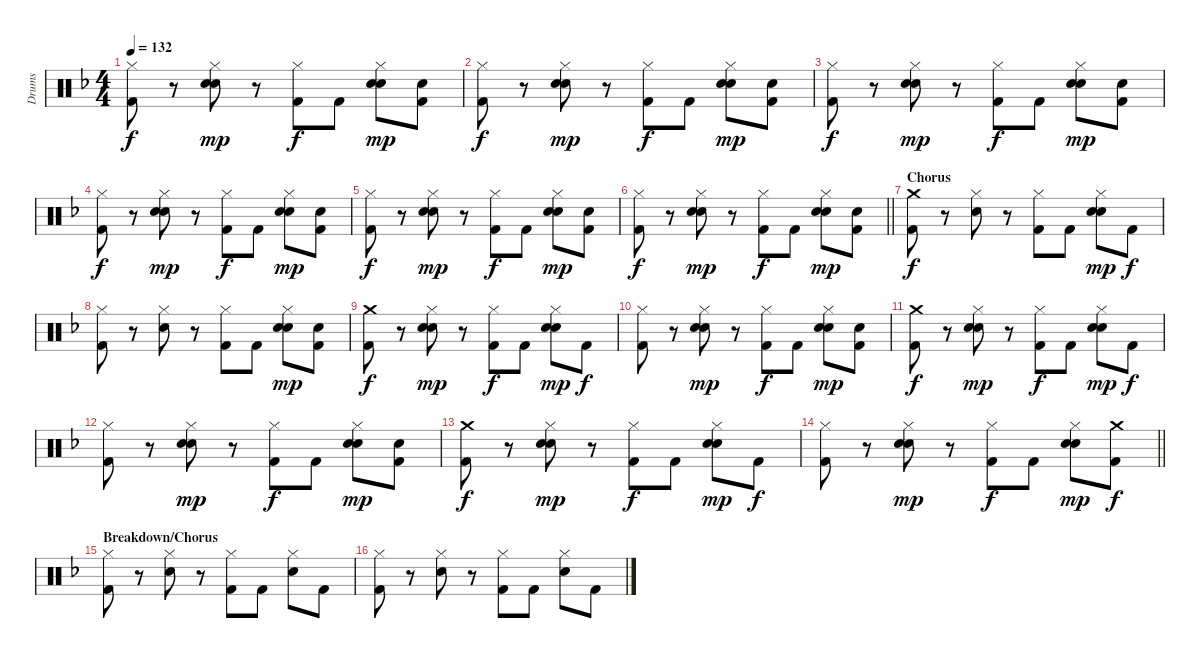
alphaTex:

\track ("Drums" "Drums") {instrument percussion}
\staff {score}
\articulation defaults
\ts (4 4)
\tempo 132
\clef neutral
\ks f
("Hi-Hat (closed)" "Kick (hit) 2").8{dy f} r.8 ("Hi-Hat (closed)" "Hand Clap (hit)" "Snare (hit) 2").8{dy mp} r.8 ("Hi-Hat (closed)" "Kick (hit) 2").8{dy f} "Kick (hit) 2".8 ("Hi-Hat (closed)" "Hand Clap (hit)" "Snare (hit) 2").8{dy mp} ("Hand Clap (hit)" "Kick (hit) 2").8 |
("Hi-Hat (closed)" "Kick (hit) 2").8{dy f} r.8 ("Hi-Hat (closed)" "Hand Clap (hit)" "Snare (hit) 2").8{dy mp} r.8 ("Hi-Hat (closed)" "Kick (hit) 2").8{dy f} "Kick (hit) 2".8 ("Hi-Hat (closed)" "Hand Clap (hit)" "Snare (hit) 2").8{dy mp} ("Hand Clap (hit)" "Kick (hit) 2").8 |
("Hi-Hat (closed)" "Kick (hit) 2").8{dy f} r.8 ("Hi-Hat (closed)" "Hand Clap (hit)" "Snare (hit) 2").8{dy mp} r.8 ("Hi-Hat (closed)" "Kick (hit) 2").8{dy f} "Kick (hit) 2".8 ("Hi-Hat (closed)" "Hand Clap (hit)" "Snare (hit) 2").8{dy mp} ("Hand Clap (hit)" "Kick (hit) 2").8 |
("Hi-Hat (closed)" "Kick (hit) 2").8{dy f} r.8 ("Hi-Hat (closed)" "Hand Clap (hit)" "Snare (hit) 2").8{dy mp} r.8 ("Hi-Hat (closed)" "Kick (hit) 2").8{dy f} "Kick (hit) 2".8 ("Hi-Hat (closed)" "Hand Clap (hit)" "Snare (hit) 2").8{dy mp} ("Hand Clap (hit)" "Kick (hit) 2").8 |
("Hi-Hat (closed)" "Kick (hit) 2").8{dy f} r.8 ("Hi-Hat (closed)" "Hand Clap (hit)" "Snare (hit) 2").8{dy mp} r.8 ("Hi-Hat (closed)" "Kick (hit) 2").8{dy f} "Kick (hit) 2".8 ("Hi-Hat (closed)" "Hand Clap (hit)" "Snare (hit) 2").8{dy mp} ("Hand Clap (hit)" "Kick (hit) 2").8 |
\barLineRight lightlight
("Hi-Hat (closed)" "Kick (hit) 2").8{dy f} r.8 ("Hi-Hat (closed)" "Hand Clap (hit)" "Snare (hit) 2").8{dy mp} r.8 ("Hi-Hat (closed)" "Kick (hit) 2").8{dy f} "Kick (hit) 2".8 ("Hi-Hat (closed)" "Hand Clap (hit)" "Snare (hit) 2").8{dy mp} ("Hand Clap (hit)" "Kick (hit) 2").8 |
\section ("" "Chorus")
("Crash medium (hit)" "Kick (hit) 2").8{dy f} r.8 ("Hi-Hat (closed)" "Snare (hit) 2").8 r.8 ("Hi-Hat (closed)" "Kick (hit) 2").8 "Kick (hit) 2".8 ("Hi-Hat (closed)" "Hand Clap (hit)" "Snare (hit) 2").8{dy mp} "Kick (hit) 2".8{dy f} |
("Hi-Hat (closed)" "Kick (hit) 2").8 r.8 ("Hi-Hat (closed)" "Snare (hit) 2").8 r.8 ("Hi-Hat (closed)" "Kick (hit) 2").8 "Kick (hit) 2".8 ("Hi-Hat (closed)" "Hand Clap (hit)" "Snare (hit) 2").8{dy mp} ("Hand Clap (hit)" "Kick (hit) 2").8 |
("Crash medium (hit)" "Kick (hit) 2").8{dy f} r.8 ("Hi-Hat (closed)" "Hand Clap (hit)" "Snare (hit) 2").8{dy mp} r.8 ("Hi-Hat (closed)" "Kick (hit) 2").8{dy f} "Kick (hit) 2".8 ("Hi-Hat (closed)" "Hand Clap (hit)" "Snare (hit) 2").8{dy mp} "Kick (hit) 2".8{dy f} |
("Hi-Hat (closed)" "Kick (hit) 2").8 r.8 ("Hi-Hat (closed)" "Hand Clap (hit)" "Snare (hit) 2").8{dy mp} r.8 ("Hi-Hat (closed)" "Kick (hit) 2").8{dy f} "Kick (hit) 2".8 ("Hi-Hat (closed)" "Hand Clap (hit)" "Snare (hit) 2").8{dy mp} ("Hand Clap (hit)" "Kick (hit) 2").8 |
("Crash medium (hit)" "Kick (hit) 2").8{dy f} r.8 ("Hi-Hat (closed)" "Hand Clap (hit)" "Snare (hit) 2").8{dy mp} r.8 ("Hi-Hat (closed)" "Kick (hit) 2").8{dy f} "Kick (hit) 2".8 ("Hi-Hat (closed)" "Hand Clap (hit)" "Snare (hit) 2").8{dy mp} "Kick (hit) 2".8{dy f} |
("Hi-Hat (closed)" "Kick (hit) 2").8 r.8 ("Hi-Hat (closed)" "Hand Clap (hit)" "Snare (hit) 2").8{dy mp} r.8 ("Hi-Hat (closed)" "Kick (hit) 2").8{dy f} "Kick (hit) 2".8 ("Hi-Hat (closed)" "Hand Clap (hit)" "Snare (hit) 2").8{dy mp} ("Hand Clap (hit)" "Kick (hit) 2").8 |
("Crash medium (hit)" "Kick (hit) 2").8{dy f} r.8 ("Hi-Hat (closed)" "Hand Clap (hit)" "Snare (hit) 2").8{dy mp} r.8 ("Hi-Hat (closed)" "Kick (hit) 2").8{dy f} "Kick (hit) 2".8 ("Hi-Hat (closed)" "Hand Clap (hit)" "Snare (hit) 2").8{dy mp} "Kick (hit) 2".8{dy f} |
\barLineRight lightlight
("Hi-Hat (closed)" "Kick (hit) 2").8 r.8 ("Hi-Hat (closed)" "Hand Clap (hit)" "Snare (hit) 2").8{dy mp} r.8 ("Hi-Hat (closed)" "Kick (hit) 2").8{dy f} "Kick (hit) 2".8 ("Hi-Hat (closed)" "Hand Clap (hit)" "Snare (hit) 2").8{dy mp} ("Crash medium (hit)" "Kick (hit) 2").8{dy f} |
\section ("" "Breakdown/Chorus")
("Hi-Hat (closed)" "Kick (hit) 2").8 r.8 ("Hi-Hat (closed)" "Snare (hit) 2").8 r.8 ("Hi-Hat (closed)" "Kick (hit) 2").8 "Kick (hit) 2".8 ("Hi-Hat (closed)" "Snare (hit) 2").8 "Kick (hit) 2".8 |
("Hi-Hat (closed)" "Kick (hit) 2").8 r.8 ("Hi-Hat (closed)" "Snare (hit) 2").8 r.8 ("Hi-Hat (closed)" "Kick (hit) 2").8 "Kick (hit) 2".8 ("Hi-Hat (closed)" "Snare (hit) 2").8 "Kick (hit) 2".8
